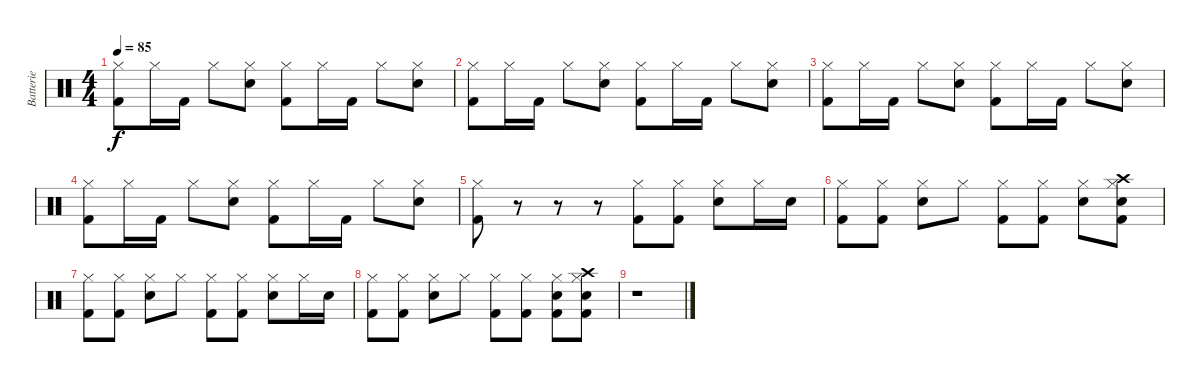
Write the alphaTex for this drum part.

\track ("Batterie" "Batterie") {instrument percussion}
\staff {score}
\articulation defaults
\ts (4 4)
\tempo 85
\clef neutral
\ks c
("Hi-Hat (closed)" "Kick (hit) 2").8{dy f} "Hi-Hat (closed)".16 "Kick (hit) 2".16 "Hi-Hat (closed)".8 ("Hi-Hat (closed)" "Snare (hit) 2").8 ("Hi-Hat (closed)" "Kick (hit) 2").8 "Hi-Hat (closed)".16 "Kick (hit) 2".16 "Hi-Hat (closed)".8 ("Hi-Hat (closed)" "Snare (hit) 2").8 |
("Hi-Hat (closed)" "Kick (hit) 2").8 "Hi-Hat (closed)".16 "Kick (hit) 2".16 "Hi-Hat (closed)".8 ("Hi-Hat (closed)" "Snare (hit) 2").8 ("Hi-Hat (closed)" "Kick (hit) 2").8 "Hi-Hat (closed)".16 "Kick (hit) 2".16 "Hi-Hat (closed)".8 ("Hi-Hat (closed)" "Snare (hit) 2").8 |
("Hi-Hat (closed)" "Kick (hit) 2").8 "Hi-Hat (closed)".16 "Kick (hit) 2".16 "Hi-Hat (closed)".8 ("Hi-Hat (closed)" "Snare (hit) 2").8 ("Hi-Hat (closed)" "Kick (hit) 2").8 "Hi-Hat (closed)".16 "Kick (hit) 2".16 "Hi-Hat (closed)".8 ("Hi-Hat (closed)" "Snare (hit) 2").8 |
("Hi-Hat (closed)" "Kick (hit) 2").8 "Hi-Hat (closed)".16 "Kick (hit) 2".16 "Hi-Hat (closed)".8 ("Hi-Hat (closed)" "Snare (hit) 2").8 ("Hi-Hat (closed)" "Kick (hit) 2").8 "Hi-Hat (closed)".16 "Kick (hit) 2".16 "Hi-Hat (closed)".8 ("Hi-Hat (closed)" "Snare (hit) 2").8 |
("Hi-Hat (closed)" "Kick (hit) 2").8 r.8 r.8 r.8 ("Hi-Hat (closed)" "Kick (hit) 2").8 ("Hi-Hat (closed)" "Kick (hit) 2").8 ("Hi-Hat (closed)" "Snare (hit) 2").8 "Hi-Hat (closed)".16 "Snare (hit) 2".16 |
("Hi-Hat (closed)" "Kick (hit) 2").8 ("Hi-Hat (closed)" "Kick (hit) 2").8 ("Hi-Hat (closed)" "Snare (hit) 2").8 "Hi-Hat (closed)".8 ("Hi-Hat (closed)" "Kick (hit) 2").8 ("Hi-Hat (closed)" "Kick (hit) 2").8 ("Hi-Hat (closed)" "Snare (hit) 2").8 ("Crash high (hit)" "Hi-Hat (closed)" "Snare (hit) 2" "Kick (hit) 2").8 |
("Hi-Hat (closed)" "Kick (hit) 2").8 ("Hi-Hat (closed)" "Kick (hit) 2").8 ("Hi-Hat (closed)" "Snare (hit) 2").8 "Hi-Hat (closed)".8 ("Hi-Hat (closed)" "Kick (hit) 2").8 ("Hi-Hat (closed)" "Kick (hit) 2").8 ("Hi-Hat (closed)" "Snare (hit) 2").8 "Hi-Hat (closed)".16 "Snare (hit) 2".16 |
("Hi-Hat (closed)" "Kick (hit) 2").8 ("Hi-Hat (closed)" "Kick (hit) 2").8 ("Hi-Hat (closed)" "Snare (hit) 2").8 "Hi-Hat (closed)".8 ("Hi-Hat (closed)" "Kick (hit) 2").8 ("Hi-Hat (closed)" "Kick (hit) 2").8 ("Hi-Hat (closed)" "Snare (hit) 2" "Kick (hit) 2").8 ("Crash high (hit)" "Hi-Hat (closed)" "Snare (hit) 2" "Kick (hit) 2").8 |
r.1
